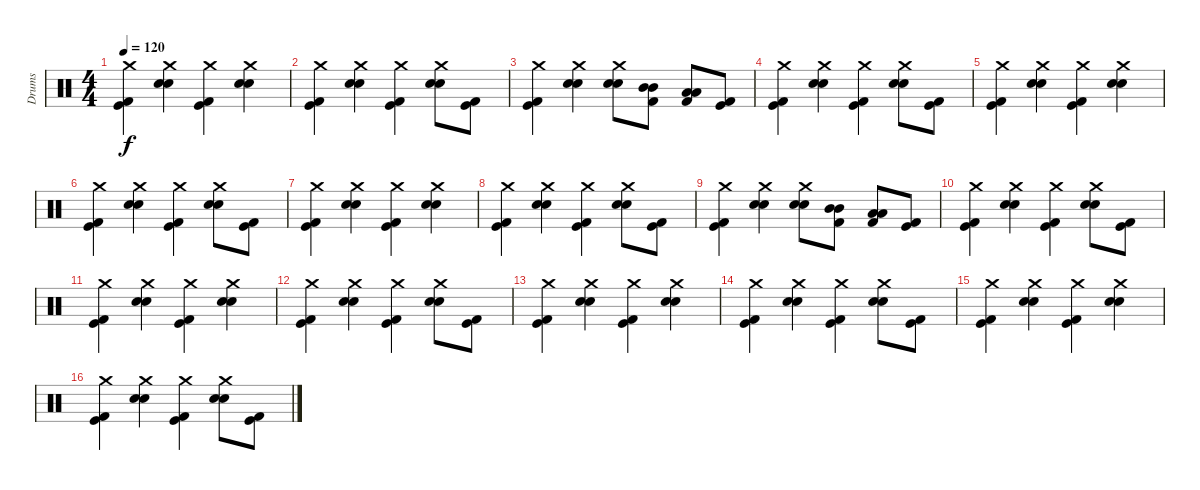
\track ("Drums" "Drums") {instrument percussion}
\staff {score}
\articulation defaults
\ts (4 4)
\tempo 120
\clef neutral
\ks c
("Crash medium (hit)" "Kick (hit)" "Kick (hit) 2").4{dy f} ("Crash medium (hit)" "Electric Snare (hit)" "Electric Snare (hit)").4 ("Crash medium (hit)" "Kick (hit)" "Kick (hit) 2").4 ("Crash medium (hit)" "Electric Snare (hit)" "Electric Snare (hit)").4 |
("Crash medium (hit)" "Kick (hit)" "Kick (hit) 2").4 ("Crash medium (hit)" "Electric Snare (hit)" "Electric Snare (hit)").4 ("Crash medium (hit)" "Kick (hit)" "Kick (hit) 2").4 ("Crash medium (hit)" "Electric Snare (hit)" "Electric Snare (hit)").8 ("Kick (hit)" "Kick (hit) 2").8 |
("Crash medium (hit)" "Kick (hit)" "Kick (hit) 2").4 ("Crash medium (hit)" "Electric Snare (hit)" "Electric Snare (hit)").4 ("Crash medium (hit)" "Electric Snare (hit)" "Electric Snare (hit)").8 ("Mid Tom (hit)" "Mid Tom (hit)" "Kick (hit) 2").8 ("Low Tom (hit)" "Low Tom (hit)" "Kick (hit) 2").8 ("Kick (hit)" "Kick (hit) 2").8 |
("Crash medium (hit)" "Kick (hit)" "Kick (hit) 2").4 ("Crash medium (hit)" "Electric Snare (hit)" "Electric Snare (hit)").4 ("Crash medium (hit)" "Kick (hit)" "Kick (hit) 2").4 ("Crash medium (hit)" "Electric Snare (hit)" "Electric Snare (hit)").8 ("Kick (hit)" "Kick (hit) 2").8 |
("Crash medium (hit)" "Kick (hit)" "Kick (hit) 2").4 ("Crash medium (hit)" "Electric Snare (hit)" "Electric Snare (hit)").4 ("Crash medium (hit)" "Kick (hit)" "Kick (hit) 2").4 ("Crash medium (hit)" "Electric Snare (hit)" "Electric Snare (hit)").4 |
("Crash medium (hit)" "Kick (hit)" "Kick (hit) 2").4 ("Crash medium (hit)" "Electric Snare (hit)" "Electric Snare (hit)").4 ("Crash medium (hit)" "Kick (hit)" "Kick (hit) 2").4 ("Crash medium (hit)" "Electric Snare (hit)" "Electric Snare (hit)").8 ("Kick (hit)" "Kick (hit) 2").8 |
("Crash medium (hit)" "Kick (hit)" "Kick (hit) 2").4 ("Crash medium (hit)" "Electric Snare (hit)" "Electric Snare (hit)").4 ("Crash medium (hit)" "Kick (hit)" "Kick (hit) 2").4 ("Crash medium (hit)" "Electric Snare (hit)" "Electric Snare (hit)").4 |
("Crash medium (hit)" "Kick (hit)" "Kick (hit) 2").4 ("Crash medium (hit)" "Electric Snare (hit)" "Electric Snare (hit)").4 ("Crash medium (hit)" "Kick (hit)" "Kick (hit) 2").4 ("Crash medium (hit)" "Electric Snare (hit)" "Electric Snare (hit)").8 ("Kick (hit)" "Kick (hit) 2").8 |
("Crash medium (hit)" "Kick (hit)" "Kick (hit) 2").4 ("Crash medium (hit)" "Electric Snare (hit)" "Electric Snare (hit)").4 ("Crash medium (hit)" "Electric Snare (hit)" "Electric Snare (hit)").8 ("Mid Tom (hit)" "Mid Tom (hit)" "Kick (hit) 2").8 ("Low Tom (hit)" "Low Tom (hit)" "Kick (hit) 2").8 ("Kick (hit)" "Kick (hit) 2").8 |
("Crash medium (hit)" "Kick (hit)" "Kick (hit) 2").4 ("Crash medium (hit)" "Electric Snare (hit)" "Electric Snare (hit)").4 ("Crash medium (hit)" "Kick (hit)" "Kick (hit) 2").4 ("Crash medium (hit)" "Electric Snare (hit)" "Electric Snare (hit)").8 ("Kick (hit)" "Kick (hit) 2").8 |
("Crash medium (hit)" "Kick (hit)" "Kick (hit) 2").4 ("Crash medium (hit)" "Electric Snare (hit)" "Electric Snare (hit)").4 ("Crash medium (hit)" "Kick (hit)" "Kick (hit) 2").4 ("Crash medium (hit)" "Electric Snare (hit)" "Electric Snare (hit)").4 |
("Crash medium (hit)" "Kick (hit)" "Kick (hit) 2").4 ("Crash medium (hit)" "Electric Snare (hit)" "Electric Snare (hit)").4 ("Crash medium (hit)" "Kick (hit)" "Kick (hit) 2").4 ("Crash medium (hit)" "Electric Snare (hit)" "Electric Snare (hit)").8 ("Kick (hit)" "Kick (hit) 2").8 |
("Crash medium (hit)" "Kick (hit)" "Kick (hit) 2").4 ("Crash medium (hit)" "Electric Snare (hit)" "Electric Snare (hit)").4 ("Crash medium (hit)" "Kick (hit)" "Kick (hit) 2").4 ("Crash medium (hit)" "Electric Snare (hit)" "Electric Snare (hit)").4 |
("Crash medium (hit)" "Kick (hit)" "Kick (hit) 2").4 ("Crash medium (hit)" "Electric Snare (hit)" "Electric Snare (hit)").4 ("Crash medium (hit)" "Kick (hit)" "Kick (hit) 2").4 ("Crash medium (hit)" "Electric Snare (hit)" "Electric Snare (hit)").8 ("Kick (hit)" "Kick (hit) 2").8 |
("Crash medium (hit)" "Kick (hit)" "Kick (hit) 2").4 ("Crash medium (hit)" "Electric Snare (hit)" "Electric Snare (hit)").4 ("Crash medium (hit)" "Kick (hit)" "Kick (hit) 2").4 ("Crash medium (hit)" "Electric Snare (hit)" "Electric Snare (hit)").4 |
("Crash medium (hit)" "Kick (hit)" "Kick (hit) 2").4 ("Crash medium (hit)" "Electric Snare (hit)" "Electric Snare (hit)").4 ("Crash medium (hit)" "Kick (hit)" "Kick (hit) 2").4 ("Crash medium (hit)" "Electric Snare (hit)" "Electric Snare (hit)").8 ("Kick (hit)" "Kick (hit) 2").8
